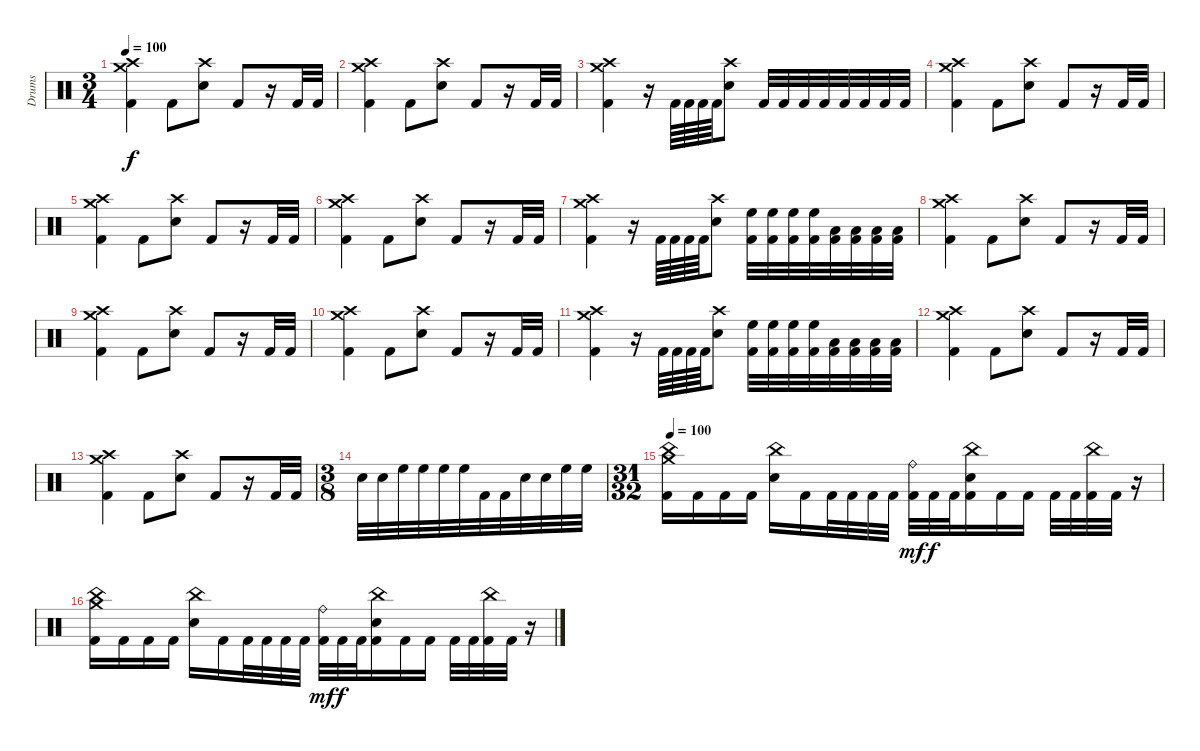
\track ("Drums" "Drums") {instrument percussion}
\staff {score}
\articulation defaults
\ts (3 4)
\tempo 100
\clef neutral
\ks c
("Kick (hit) 2" "Crash high (hit)" "Crash medium (hit)").4{dy f} "Kick (hit) 2".8 ("Electric Snare (hit)" "Crash high (hit)").8 "Kick (hit) 2".8 r.16 "Kick (hit) 2".32 "Kick (hit) 2".32 |
("Kick (hit) 2" "Crash high (hit)" "Crash medium (hit)").4 "Kick (hit) 2".8 ("Electric Snare (hit)" "Crash high (hit)").8 "Kick (hit) 2".8 r.16 "Kick (hit) 2".32 "Kick (hit) 2".32 |
("Kick (hit) 2" "Crash high (hit)" "Crash medium (hit)").4 r.16 "Kick (hit) 2".64 "Kick (hit) 2".64 "Kick (hit) 2".64 "Kick (hit) 2".64 ("Electric Snare (hit)" "Crash high (hit)").8 "Kick (hit) 2".32 "Kick (hit) 2".32 "Kick (hit) 2".32 "Kick (hit) 2".32 "Kick (hit) 2".32 "Kick (hit) 2".32 "Kick (hit) 2".32 "Kick (hit) 2".32 |
("Kick (hit) 2" "Crash high (hit)" "Crash medium (hit)").4 "Kick (hit) 2".8 ("Electric Snare (hit)" "Crash high (hit)").8 "Kick (hit) 2".8 r.16 "Kick (hit) 2".32 "Kick (hit) 2".32 |
("Kick (hit) 2" "Crash high (hit)" "Crash medium (hit)").4 "Kick (hit) 2".8 ("Electric Snare (hit)" "Crash high (hit)").8 "Kick (hit) 2".8 r.16 "Kick (hit) 2".32 "Kick (hit) 2".32 |
("Kick (hit) 2" "Crash high (hit)" "Crash medium (hit)").4 "Kick (hit) 2".8 ("Electric Snare (hit)" "Crash high (hit)").8 "Kick (hit) 2".8 r.16 "Kick (hit) 2".32 "Kick (hit) 2".32 |
("Kick (hit) 2" "Crash high (hit)" "Crash medium (hit)").4 r.16 "Kick (hit) 2".64 "Kick (hit) 2".64 "Kick (hit) 2".64 "Kick (hit) 2".64 ("Electric Snare (hit)" "Crash high (hit)").8 ("Kick (hit) 2" "High Floor Tom (hit)").32 ("Kick (hit) 2" "High Floor Tom (hit)").32 ("Kick (hit) 2" "High Floor Tom (hit)").32 ("Kick (hit) 2" "High Floor Tom (hit)").32 ("Kick (hit) 2" "Low Tom (hit)").32 ("Kick (hit) 2" "Low Tom (hit)").32 ("Kick (hit) 2" "Low Tom (hit)").32 ("Kick (hit) 2" "Low Tom (hit)").32 |
("Kick (hit) 2" "Crash high (hit)" "Crash medium (hit)").4 "Kick (hit) 2".8 ("Electric Snare (hit)" "Crash high (hit)").8 "Kick (hit) 2".8 r.16 "Kick (hit) 2".32 "Kick (hit) 2".32 |
("Kick (hit) 2" "Crash high (hit)" "Crash medium (hit)").4 "Kick (hit) 2".8 ("Electric Snare (hit)" "Crash high (hit)").8 "Kick (hit) 2".8 r.16 "Kick (hit) 2".32 "Kick (hit) 2".32 |
("Kick (hit) 2" "Crash high (hit)" "Crash medium (hit)").4 "Kick (hit) 2".8 ("Electric Snare (hit)" "Crash high (hit)").8 "Kick (hit) 2".8 r.16 "Kick (hit) 2".32 "Kick (hit) 2".32 |
("Kick (hit) 2" "Crash high (hit)" "Crash medium (hit)").4 r.16 "Kick (hit) 2".64 "Kick (hit) 2".64 "Kick (hit) 2".64 "Kick (hit) 2".64 ("Electric Snare (hit)" "Crash high (hit)").8 ("Kick (hit) 2" "High Floor Tom (hit)").32 ("Kick (hit) 2" "High Floor Tom (hit)").32 ("Kick (hit) 2" "High Floor Tom (hit)").32 ("Kick (hit) 2" "High Floor Tom (hit)").32 ("Kick (hit) 2" "Low Tom (hit)").32 ("Kick (hit) 2" "Low Tom (hit)").32 ("Kick (hit) 2" "Low Tom (hit)").32 ("Kick (hit) 2" "Low Tom (hit)").32 |
("Kick (hit) 2" "Crash high (hit)" "Crash medium (hit)").4 "Kick (hit) 2".8 ("Electric Snare (hit)" "Crash high (hit)").8 "Kick (hit) 2".8 r.16 "Kick (hit) 2".32 "Kick (hit) 2".32 |
("Kick (hit) 2" "Crash high (hit)" "Crash medium (hit)").4 "Kick (hit) 2".8 ("Electric Snare (hit)" "Crash high (hit)").8 "Kick (hit) 2".8 r.16 "Kick (hit) 2".32 "Kick (hit) 2".32 |
\ts (3 8)
"Electric Snare (hit)".32 "Electric Snare (hit)".32 "High Floor Tom (hit)".32 "High Floor Tom (hit)".32 "High Floor Tom (hit)".32 "High Floor Tom (hit)".32 "Kick (hit) 2".32 "Kick (hit) 2".32 "Electric Snare (hit)".32 "Electric Snare (hit)".32 "High Floor Tom (hit)".32 "High Floor Tom (hit)".32 |
\ts (31 32)
\tempo 100
("China (hit)" "Crash medium (hit)" "Kick (hit) 2").16 "Kick (hit) 2".16 "Kick (hit) 2".16 "Kick (hit) 2".16 ("Electric Snare (hit)" "China (hit)").16 "Kick (hit) 2".16 "Kick (hit) 2".32 "Kick (hit) 2".32 "Kick (hit) 2".32 "Kick (hit) 2".32 ("Kick (hit) 2" "Ride (bell)").32{dy mf} "Kick (hit) 2".32{dy f} "Kick (hit) 2".32 ("Kick (hit) 2" "China (hit)" "Electric Snare (hit)").16 "Kick (hit) 2".16 "Kick (hit) 2".16 "Kick (hit) 2".32 "Kick (hit) 2".32 ("Kick (hit) 2" "China (hit)").32 "Kick (hit) 2".32 r.16 |
("China (hit)" "Crash medium (hit)" "Kick (hit) 2").16 "Kick (hit) 2".16 "Kick (hit) 2".16 "Kick (hit) 2".16 ("Electric Snare (hit)" "China (hit)").16 "Kick (hit) 2".16 "Kick (hit) 2".32 "Kick (hit) 2".32 "Kick (hit) 2".32 "Kick (hit) 2".32 ("Kick (hit) 2" "Ride (bell)").32{dy mf} "Kick (hit) 2".32{dy f} "Kick (hit) 2".32 ("Kick (hit) 2" "China (hit)" "Electric Snare (hit)").16 "Kick (hit) 2".16 "Kick (hit) 2".16 "Kick (hit) 2".32 "Kick (hit) 2".32 ("Kick (hit) 2" "China (hit)").32 "Kick (hit) 2".32 r.16
